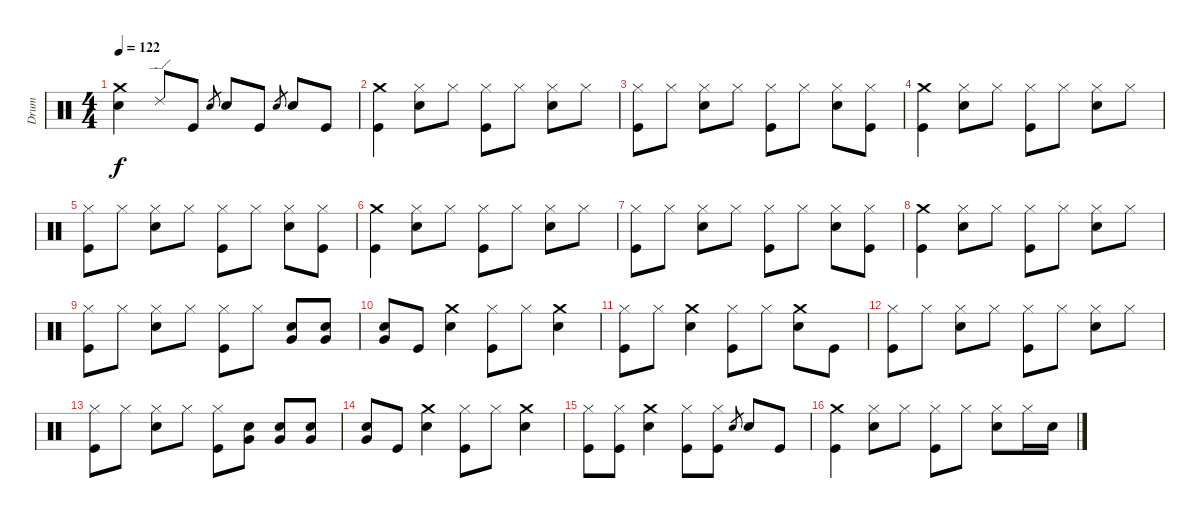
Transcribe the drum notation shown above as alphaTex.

\track ("Drum" "Drum") {instrument percussion}
\staff {score}
\articulation defaults
\ts (4 4)
\tempo 122
\clef neutral
\ks c
("Electric Snare (hit)" "Crash medium (hit)").4{dy f} "Ride (edge) 2".8 "Kick (hit)".8 "Electric Snare (hit)".8{gr} "Electric Snare (hit)".8 "Kick (hit)".8 "Electric Snare (hit)".8{gr} "Electric Snare (hit)".8 "Kick (hit)".8 |
("Kick (hit)" "Crash medium (hit)").4 ("Electric Snare (hit)" "Hi-Hat (closed)").8 "Hi-Hat (closed)".8 ("Kick (hit)" "Hi-Hat (closed)").8 "Hi-Hat (closed)".8 ("Electric Snare (hit)" "Hi-Hat (closed)").8 "Hi-Hat (closed)".8 |
("Kick (hit)" "Hi-Hat (closed)").8 "Hi-Hat (closed)".8 ("Electric Snare (hit)" "Hi-Hat (closed)").8 "Hi-Hat (closed)".8 ("Kick (hit)" "Hi-Hat (closed)").8 "Hi-Hat (closed)".8 ("Electric Snare (hit)" "Hi-Hat (closed)").8 ("Kick (hit)" "Hi-Hat (closed)").8 |
("Kick (hit)" "Crash medium (hit)").4 ("Electric Snare (hit)" "Hi-Hat (closed)").8 "Hi-Hat (closed)".8 ("Kick (hit)" "Hi-Hat (closed)").8 "Hi-Hat (closed)".8 ("Electric Snare (hit)" "Hi-Hat (closed)").8 "Hi-Hat (closed)".8 |
("Kick (hit)" "Hi-Hat (closed)").8 "Hi-Hat (closed)".8 ("Electric Snare (hit)" "Hi-Hat (closed)").8 "Hi-Hat (closed)".8 ("Kick (hit)" "Hi-Hat (closed)").8 "Hi-Hat (closed)".8 ("Electric Snare (hit)" "Hi-Hat (closed)").8 ("Kick (hit)" "Hi-Hat (closed)").8 |
("Kick (hit)" "Crash medium (hit)").4 ("Electric Snare (hit)" "Hi-Hat (closed)").8 "Hi-Hat (closed)".8 ("Kick (hit)" "Hi-Hat (closed)").8 "Hi-Hat (closed)".8 ("Electric Snare (hit)" "Hi-Hat (closed)").8 "Hi-Hat (closed)".8 |
("Kick (hit)" "Hi-Hat (closed)").8 "Hi-Hat (closed)".8 ("Electric Snare (hit)" "Hi-Hat (closed)").8 "Hi-Hat (closed)".8 ("Kick (hit)" "Hi-Hat (closed)").8 "Hi-Hat (closed)".8 ("Electric Snare (hit)" "Hi-Hat (closed)").8 ("Kick (hit)" "Hi-Hat (closed)").8 |
("Kick (hit)" "Crash medium (hit)").4 ("Electric Snare (hit)" "Hi-Hat (closed)").8 "Hi-Hat (closed)".8 ("Kick (hit)" "Hi-Hat (closed)").8 "Hi-Hat (closed)".8 ("Electric Snare (hit)" "Hi-Hat (closed)").8 "Hi-Hat (closed)".8 |
("Kick (hit)" "Hi-Hat (closed)").8 "Hi-Hat (closed)".8 ("Electric Snare (hit)" "Hi-Hat (closed)").8 "Hi-Hat (closed)".8 ("Kick (hit)" "Hi-Hat (closed)").8 "Hi-Hat (closed)".8 ("Electric Snare (hit)" "Very Low Tom (hit)").8 ("Electric Snare (hit)" "Very Low Tom (hit)").8 |
("Electric Snare (hit)" "Very Low Tom (hit)").8 "Kick (hit)".8 ("Electric Snare (hit)" "Crash medium (hit)").4 ("Kick (hit)" "Hi-Hat (closed)").8 "Hi-Hat (closed)".8 ("Electric Snare (hit)" "Crash medium (hit)").4 |
("Kick (hit)" "Hi-Hat (closed)").8 "Hi-Hat (closed)".8 ("Electric Snare (hit)" "Crash medium (hit)").4 ("Kick (hit)" "Hi-Hat (closed)").8 "Hi-Hat (closed)".8 ("Electric Snare (hit)" "Crash medium (hit)").8 "Kick (hit)".8 |
("Kick (hit)" "Hi-Hat (closed)").8 "Hi-Hat (closed)".8 ("Electric Snare (hit)" "Hi-Hat (closed)").8 "Hi-Hat (closed)".8 ("Kick (hit)" "Hi-Hat (closed)").8 "Hi-Hat (closed)".8 ("Electric Snare (hit)" "Hi-Hat (closed)").8 "Hi-Hat (closed)".8 |
("Kick (hit)" "Hi-Hat (closed)").8 "Hi-Hat (closed)".8 ("Electric Snare (hit)" "Hi-Hat (closed)").8 "Hi-Hat (closed)".8 ("Kick (hit)" "Hi-Hat (closed)").8 ("Electric Snare (hit)" "Very Low Tom (hit)").8 ("Electric Snare (hit)" "Very Low Tom (hit)").8 ("Electric Snare (hit)" "Very Low Tom (hit)").8 |
("Electric Snare (hit)" "Very Low Tom (hit)").8 "Kick (hit)".8 ("Electric Snare (hit)" "Crash medium (hit)").4 ("Kick (hit)" "Hi-Hat (closed)").8 "Hi-Hat (closed)".8 ("Electric Snare (hit)" "Crash medium (hit)").4 |
("Kick (hit)" "Hi-Hat (closed)").8 ("Kick (hit)" "Hi-Hat (closed)").8 ("Electric Snare (hit)" "Crash medium (hit)").4 ("Kick (hit)" "Hi-Hat (closed)").8 ("Kick (hit)" "Hi-Hat (closed)").8 "Electric Snare (hit)".8{gr} "Electric Snare (hit)".8 "Kick (hit)".8 |
("Kick (hit)" "Crash medium (hit)").4 ("Electric Snare (hit)" "Hi-Hat (closed)").8 "Hi-Hat (closed)".8 ("Kick (hit)" "Hi-Hat (closed)").8 "Hi-Hat (closed)".8 ("Electric Snare (hit)" "Hi-Hat (closed)").8 "Hi-Hat (closed)".16 "Electric Snare (hit)".16
